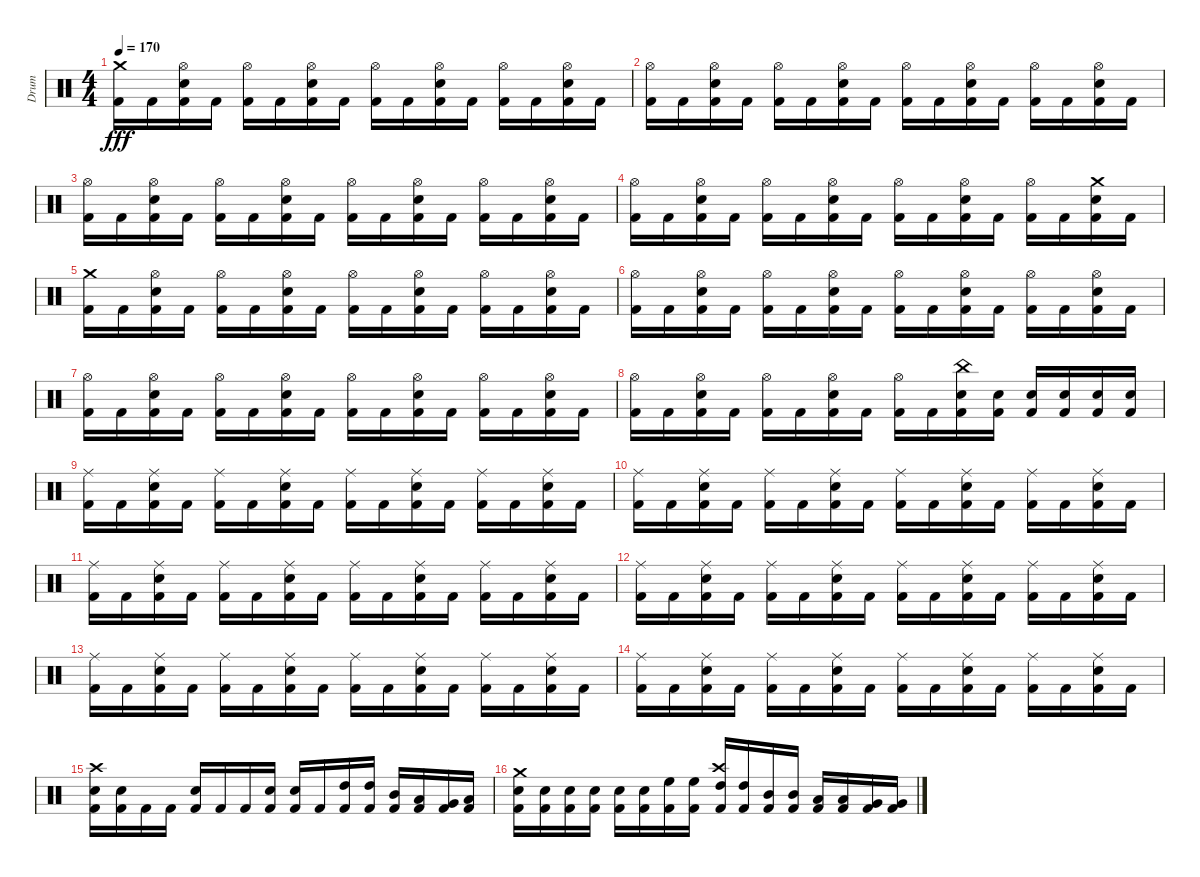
\track ("Drum" "Drum") {instrument percussion}
\staff {score}
\articulation defaults
\ts (4 4)
\tempo 170
\clef neutral
\ks c
("Crash medium (hit)" "Kick (hit) 2").16{dy fff} "Kick (hit) 2".16 ("Hi-Hat (open)" "Electric Snare (hit)" "Kick (hit) 2").16 "Kick (hit) 2".16 ("Hi-Hat (open)" "Kick (hit) 2").16 "Kick (hit) 2".16 ("Hi-Hat (open)" "Electric Snare (hit)" "Kick (hit) 2").16 "Kick (hit) 2".16 ("Hi-Hat (open)" "Kick (hit) 2").16 "Kick (hit) 2".16 ("Hi-Hat (open)" "Electric Snare (hit)" "Kick (hit) 2").16 "Kick (hit) 2".16 ("Hi-Hat (open)" "Kick (hit) 2").16 "Kick (hit) 2".16 ("Hi-Hat (open)" "Electric Snare (hit)" "Kick (hit) 2").16 "Kick (hit) 2".16 |
("Hi-Hat (open)" "Kick (hit) 2").16 "Kick (hit) 2".16 ("Hi-Hat (open)" "Electric Snare (hit)" "Kick (hit) 2").16 "Kick (hit) 2".16 ("Hi-Hat (open)" "Kick (hit) 2").16 "Kick (hit) 2".16 ("Hi-Hat (open)" "Electric Snare (hit)" "Kick (hit) 2").16 "Kick (hit) 2".16 ("Hi-Hat (open)" "Kick (hit) 2").16 "Kick (hit) 2".16 ("Hi-Hat (open)" "Electric Snare (hit)" "Kick (hit) 2").16 "Kick (hit) 2".16 ("Hi-Hat (open)" "Kick (hit) 2").16 "Kick (hit) 2".16 ("Hi-Hat (open)" "Electric Snare (hit)" "Kick (hit) 2").16 "Kick (hit) 2".16 |
("Hi-Hat (open)" "Kick (hit) 2").16 "Kick (hit) 2".16 ("Hi-Hat (open)" "Electric Snare (hit)" "Kick (hit) 2").16 "Kick (hit) 2".16 ("Hi-Hat (open)" "Kick (hit) 2").16 "Kick (hit) 2".16 ("Hi-Hat (open)" "Electric Snare (hit)" "Kick (hit) 2").16 "Kick (hit) 2".16 ("Hi-Hat (open)" "Kick (hit) 2").16 "Kick (hit) 2".16 ("Hi-Hat (open)" "Electric Snare (hit)" "Kick (hit) 2").16 "Kick (hit) 2".16 ("Hi-Hat (open)" "Kick (hit) 2").16 "Kick (hit) 2".16 ("Hi-Hat (open)" "Electric Snare (hit)" "Kick (hit) 2").16 "Kick (hit) 2".16 |
("Hi-Hat (open)" "Kick (hit) 2").16 "Kick (hit) 2".16 ("Hi-Hat (open)" "Electric Snare (hit)" "Kick (hit) 2").16 "Kick (hit) 2".16 ("Hi-Hat (open)" "Kick (hit) 2").16 "Kick (hit) 2".16 ("Hi-Hat (open)" "Electric Snare (hit)" "Kick (hit) 2").16 "Kick (hit) 2".16 ("Hi-Hat (open)" "Kick (hit) 2").16 "Kick (hit) 2".16 ("Hi-Hat (open)" "Electric Snare (hit)" "Kick (hit) 2").16 "Kick (hit) 2".16 ("Hi-Hat (open)" "Kick (hit) 2").16 "Kick (hit) 2".16 ("Crash medium (hit)" "Electric Snare (hit)" "Kick (hit) 2").16 "Kick (hit) 2".16 |
("Crash medium (hit)" "Kick (hit) 2").16 "Kick (hit) 2".16 ("Hi-Hat (open)" "Electric Snare (hit)" "Kick (hit) 2").16 "Kick (hit) 2".16 ("Hi-Hat (open)" "Kick (hit) 2").16 "Kick (hit) 2".16 ("Hi-Hat (open)" "Electric Snare (hit)" "Kick (hit) 2").16 "Kick (hit) 2".16 ("Hi-Hat (open)" "Kick (hit) 2").16 "Kick (hit) 2".16 ("Hi-Hat (open)" "Electric Snare (hit)" "Kick (hit) 2").16 "Kick (hit) 2".16 ("Hi-Hat (open)" "Kick (hit) 2").16 "Kick (hit) 2".16 ("Hi-Hat (open)" "Electric Snare (hit)" "Kick (hit) 2").16 "Kick (hit) 2".16 |
("Hi-Hat (open)" "Kick (hit) 2").16 "Kick (hit) 2".16 ("Hi-Hat (open)" "Electric Snare (hit)" "Kick (hit) 2").16 "Kick (hit) 2".16 ("Hi-Hat (open)" "Kick (hit) 2").16 "Kick (hit) 2".16 ("Hi-Hat (open)" "Electric Snare (hit)" "Kick (hit) 2").16 "Kick (hit) 2".16 ("Hi-Hat (open)" "Kick (hit) 2").16 "Kick (hit) 2".16 ("Hi-Hat (open)" "Electric Snare (hit)" "Kick (hit) 2").16 "Kick (hit) 2".16 ("Hi-Hat (open)" "Kick (hit) 2").16 "Kick (hit) 2".16 ("Hi-Hat (open)" "Electric Snare (hit)" "Kick (hit) 2").16 "Kick (hit) 2".16 |
("Hi-Hat (open)" "Kick (hit) 2").16 "Kick (hit) 2".16 ("Hi-Hat (open)" "Electric Snare (hit)" "Kick (hit) 2").16 "Kick (hit) 2".16 ("Hi-Hat (open)" "Kick (hit) 2").16 "Kick (hit) 2".16 ("Hi-Hat (open)" "Electric Snare (hit)" "Kick (hit) 2").16 "Kick (hit) 2".16 ("Hi-Hat (open)" "Kick (hit) 2").16 "Kick (hit) 2".16 ("Hi-Hat (open)" "Electric Snare (hit)" "Kick (hit) 2").16 "Kick (hit) 2".16 ("Hi-Hat (open)" "Kick (hit) 2").16 "Kick (hit) 2".16 ("Hi-Hat (open)" "Electric Snare (hit)" "Kick (hit) 2").16 "Kick (hit) 2".16 |
("Hi-Hat (open)" "Kick (hit) 2").16 "Kick (hit) 2".16 ("Hi-Hat (open)" "Electric Snare (hit)" "Kick (hit) 2").16 "Kick (hit) 2".16 ("Hi-Hat (open)" "Kick (hit) 2").16 "Kick (hit) 2".16 ("Hi-Hat (open)" "Electric Snare (hit)" "Kick (hit) 2").16 "Kick (hit) 2".16 ("Hi-Hat (open)" "Kick (hit) 2").16 "Kick (hit) 2".16 ("China (hit)" "Electric Snare (hit)" "Kick (hit) 2").16 ("Electric Snare (hit)" "Kick (hit) 2").16 ("Electric Snare (hit)" "Kick (hit) 2").16 ("Electric Snare (hit)" "Kick (hit) 2").16 ("Electric Snare (hit)" "Kick (hit) 2").16 ("Electric Snare (hit)" "Kick (hit) 2").16 |
("Ride (middle)" "Kick (hit) 2").16 "Kick (hit) 2".16 ("Ride (middle)" "Electric Snare (hit)" "Kick (hit) 2").16 "Kick (hit) 2".16 ("Ride (middle)" "Kick (hit) 2").16 "Kick (hit) 2".16 ("Ride (middle)" "Electric Snare (hit)" "Kick (hit) 2").16 "Kick (hit) 2".16 ("Ride (middle)" "Kick (hit) 2").16 "Kick (hit) 2".16 ("Ride (middle)" "Electric Snare (hit)" "Kick (hit) 2").16 "Kick (hit) 2".16 ("Ride (middle)" "Kick (hit) 2").16 "Kick (hit) 2".16 ("Ride (middle)" "Electric Snare (hit)" "Kick (hit) 2").16 "Kick (hit) 2".16 |
("Ride (middle)" "Kick (hit) 2").16 "Kick (hit) 2".16 ("Ride (middle)" "Electric Snare (hit)" "Kick (hit) 2").16 "Kick (hit) 2".16 ("Ride (middle)" "Kick (hit) 2").16 "Kick (hit) 2".16 ("Ride (middle)" "Electric Snare (hit)" "Kick (hit) 2").16 "Kick (hit) 2".16 ("Ride (middle)" "Kick (hit) 2").16 "Kick (hit) 2".16 ("Ride (middle)" "Electric Snare (hit)" "Kick (hit) 2").16 "Kick (hit) 2".16 ("Ride (middle)" "Kick (hit) 2").16 "Kick (hit) 2".16 ("Ride (middle)" "Electric Snare (hit)" "Kick (hit) 2").16 "Kick (hit) 2".16 |
("Ride (middle)" "Kick (hit) 2").16 "Kick (hit) 2".16 ("Ride (middle)" "Electric Snare (hit)" "Kick (hit) 2").16 "Kick (hit) 2".16 ("Ride (middle)" "Kick (hit) 2").16 "Kick (hit) 2".16 ("Ride (middle)" "Electric Snare (hit)" "Kick (hit) 2").16 "Kick (hit) 2".16 ("Ride (middle)" "Kick (hit) 2").16 "Kick (hit) 2".16 ("Ride (middle)" "Electric Snare (hit)" "Kick (hit) 2").16 "Kick (hit) 2".16 ("Ride (middle)" "Kick (hit) 2").16 "Kick (hit) 2".16 ("Ride (middle)" "Electric Snare (hit)" "Kick (hit) 2").16 "Kick (hit) 2".16 |
("Ride (middle)" "Kick (hit) 2").16 "Kick (hit) 2".16 ("Ride (middle)" "Electric Snare (hit)" "Kick (hit) 2").16 "Kick (hit) 2".16 ("Ride (middle)" "Kick (hit) 2").16 "Kick (hit) 2".16 ("Ride (middle)" "Electric Snare (hit)" "Kick (hit) 2").16 "Kick (hit) 2".16 ("Ride (middle)" "Kick (hit) 2").16 "Kick (hit) 2".16 ("Ride (middle)" "Electric Snare (hit)" "Kick (hit) 2").16 "Kick (hit) 2".16 ("Ride (middle)" "Kick (hit) 2").16 "Kick (hit) 2".16 ("Ride (middle)" "Electric Snare (hit)" "Kick (hit) 2").16 "Kick (hit) 2".16 |
("Ride (middle)" "Kick (hit) 2").16 "Kick (hit) 2".16 ("Ride (middle)" "Electric Snare (hit)" "Kick (hit) 2").16 "Kick (hit) 2".16 ("Ride (middle)" "Kick (hit) 2").16 "Kick (hit) 2".16 ("Ride (middle)" "Electric Snare (hit)" "Kick (hit) 2").16 "Kick (hit) 2".16 ("Ride (middle)" "Kick (hit) 2").16 "Kick (hit) 2".16 ("Ride (middle)" "Electric Snare (hit)" "Kick (hit) 2").16 "Kick (hit) 2".16 ("Ride (middle)" "Kick (hit) 2").16 "Kick (hit) 2".16 ("Ride (middle)" "Electric Snare (hit)" "Kick (hit) 2").16 "Kick (hit) 2".16 |
("Ride (middle)" "Kick (hit) 2").16 "Kick (hit) 2".16 ("Ride (middle)" "Electric Snare (hit)" "Kick (hit) 2").16 "Kick (hit) 2".16 ("Ride (middle)" "Kick (hit) 2").16 "Kick (hit) 2".16 ("Ride (middle)" "Electric Snare (hit)" "Kick (hit) 2").16 "Kick (hit) 2".16 ("Ride (middle)" "Kick (hit) 2").16 "Kick (hit) 2".16 ("Ride (middle)" "Electric Snare (hit)" "Kick (hit) 2").16 "Kick (hit) 2".16 ("Ride (middle)" "Kick (hit) 2").16 "Kick (hit) 2".16 ("Ride (middle)" "Electric Snare (hit)" "Kick (hit) 2").16 "Kick (hit) 2".16 |
("Crash high (hit)" "Electric Snare (hit)" "Kick (hit) 2").16 ("Electric Snare (hit)" "Kick (hit) 2").16 "Kick (hit) 2".16 "Kick (hit) 2".16 ("Electric Snare (hit)" "Kick (hit) 2").16 "Kick (hit) 2".16 "Kick (hit) 2".16 ("Electric Snare (hit)" "Kick (hit) 2").16 ("Electric Snare (hit)" "Kick (hit) 2").16 "Kick (hit) 2".16 ("High Tom (hit)" "Kick (hit) 2").16 ("High Tom (hit)" "Kick (hit) 2").16 ("Mid Tom (hit)" "Kick (hit) 2").16 ("Low Tom (hit)" "Kick (hit) 2").16 ("Very Low Tom (hit)" "Kick (hit) 2").16 ("Low Floor Tom (hit)" "Kick (hit) 2").16 |
("Crash medium (hit)" "Electric Snare (hit)" "Kick (hit) 2").16 ("Electric Snare (hit)" "Kick (hit) 2").16 ("Electric Snare (hit)" "Kick (hit) 2").16 ("Electric Snare (hit)" "Kick (hit) 2").16 ("Electric Snare (hit)" "Kick (hit) 2").16 ("Electric Snare (hit)" "Kick (hit) 2").16 ("High Floor Tom (hit)" "Kick (hit) 2").16 ("High Floor Tom (hit)" "Kick (hit) 2").16 ("Crash high (hit)" "High Tom (hit)" "Kick (hit) 2").16 ("High Tom (hit)" "Kick (hit) 2").16 ("Mid Tom (hit)" "Kick (hit) 2").16 ("Mid Tom (hit)" "Kick (hit) 2").16 ("Low Tom (hit)" "Kick (hit) 2").16 ("Low Tom (hit)" "Kick (hit) 2").16 ("Very Low Tom (hit)" "Kick (hit) 2").16 ("Very Low Tom (hit)" "Kick (hit) 2").16
